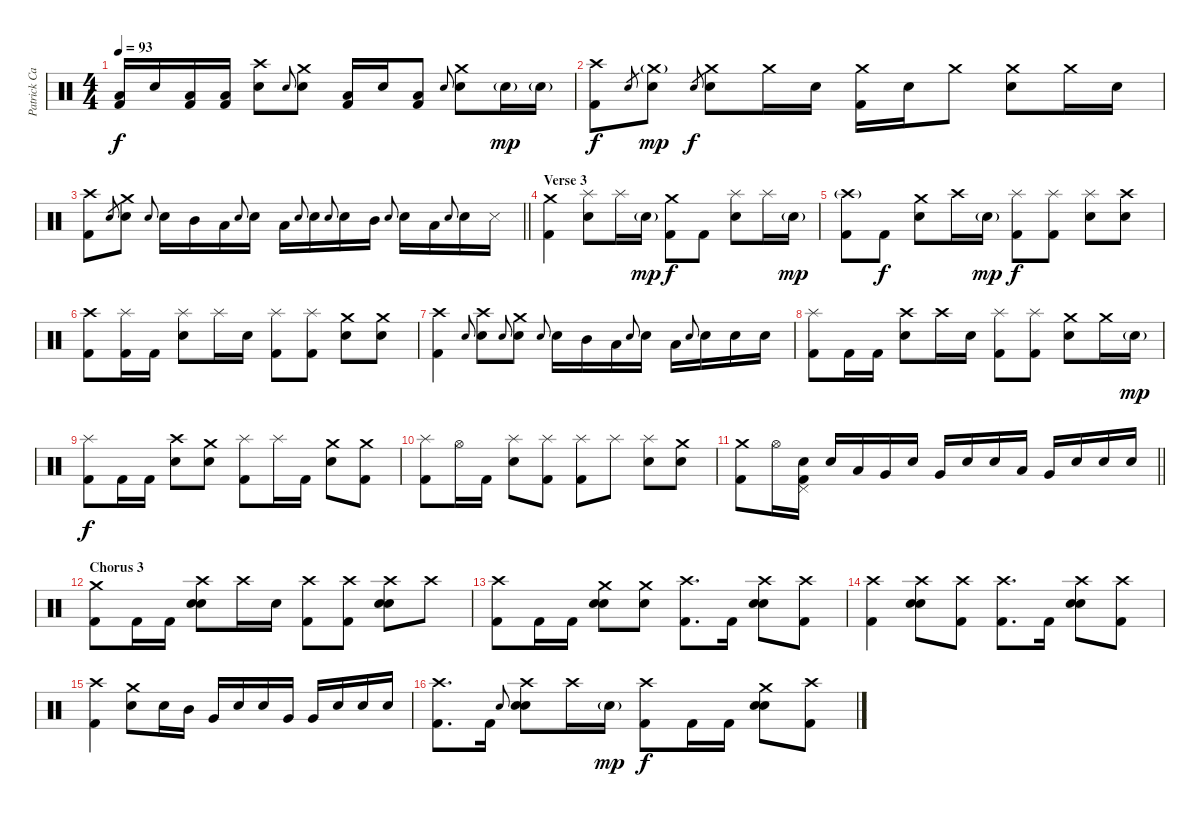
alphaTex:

\track ("Patrick Carney [Drums]" "Patrick Ca") {instrument percussion}
\staff {score}
\articulation defaults
\ts (4 4)
\tempo 93
\clef neutral
\ks c
("Low Floor Tom (hit)" "Kick (hit) 2").16{dy f} "Electric Snare (hit)".16 ("Low Floor Tom (hit)" "Kick (hit) 2").16 ("Low Floor Tom (hit)" "Kick (hit) 2").16 ("Crash high (hit)" "Electric Snare (hit)").8 "Electric Snare (hit)".8{gr onbeat} ("Crash medium (hit)" "Electric Snare (hit)").8 ("Low Floor Tom (hit)" "Kick (hit) 2").16 "Electric Snare (hit)".16 ("Low Floor Tom (hit)" "Kick (hit) 2").8 "Electric Snare (hit)".8{gr onbeat} ("Crash medium (hit)" "Electric Snare (hit)").8 "Electric Snare (hit)"{g}.16{dy mp} "Electric Snare (hit)"{g}.16 |
("Crash high (hit)" "Kick (hit) 2").8{dy f} "Electric Snare (hit)".8{gr} ("Crash medium (hit)"{g} "Electric Snare (hit)").8{dy mp} "Electric Snare (hit)".8{gr dy f} ("Crash medium (hit)" "Electric Snare (hit)").8 "Crash medium (hit)".16 "Electric Snare (hit)".16 ("Crash medium (hit)" "Kick (hit) 2").16 "Electric Snare (hit)".16 "Crash medium (hit)".8 ("Crash medium (hit)" "Electric Snare (hit)").8 "Crash medium (hit)".16 "Electric Snare (hit)".16 |
\barLineRight lightlight
("Crash high (hit)" "Kick (hit) 2").8 "Electric Snare (hit)".8{gr} ("Crash medium (hit)" "Electric Snare (hit)").8 "Electric Snare (hit)".8{gr onbeat} "Electric Snare (hit)".16 "Mid Tom (hit)".16 "Low Floor Tom (hit)".16 "Electric Snare (hit)".8{gr onbeat} "Electric Snare (hit)".16 "Low Floor Tom (hit)".16 "Electric Snare (hit)".8{gr onbeat} "Electric Snare (hit)".16 "Electric Snare (hit)".8{gr onbeat} "Electric Snare (hit)".16 "Mid Tom (hit)".16 "Electric Snare (hit)".8{gr onbeat} "Electric Snare (hit)".16 "Low Floor Tom (hit)".16 "Electric Snare (hit)".8{gr onbeat} "Electric Snare (hit)".16 "Snare (side stick) 3".16 |
\section ("" "Verse 3")
("Crash medium (hit)" "Kick (hit) 2").4 ("Splash (hit)" "Electric Snare (hit)").8 "Splash (hit)".16 "Electric Snare (hit)"{g}.16{dy mp} ("Crash medium (hit)" "Kick (hit) 2").8{dy f} "Kick (hit) 2".8 ("Splash (hit)" "Electric Snare (hit)").8 "Splash (hit)".16 "Electric Snare (hit)"{g}.16{dy mp} |
("Crash high (hit)"{g} "Kick (hit) 2").8 "Kick (hit) 2".8{dy f} ("Crash medium (hit)" "Electric Snare (hit)").8 "Crash high (hit)".16 "Electric Snare (hit)"{g}.16{dy mp} ("Splash (hit)" "Kick (hit) 2").8{dy f} ("Splash (hit)" "Kick (hit) 2").8 ("Splash (hit)" "Electric Snare (hit)").8 ("Crash high (hit)" "Electric Snare (hit)").8 |
("Crash high (hit)" "Kick (hit) 2").8 ("Splash (hit)" "Kick (hit) 2").16 "Kick (hit) 2".16 ("Splash (hit)" "Electric Snare (hit)").8 "Splash (hit)".16 "Electric Snare (hit)".16 ("Splash (hit)" "Kick (hit) 2").8 ("Splash (hit)" "Kick (hit) 2").8 ("Crash medium (hit)" "Electric Snare (hit)").8 ("Crash medium (hit)" "Electric Snare (hit)").8 |
("Crash high (hit)" "Kick (hit) 2").4 "Electric Snare (hit)".8{gr onbeat} ("Crash high (hit)" "Electric Snare (hit)").8 "Electric Snare (hit)".8{gr onbeat} ("Crash medium (hit)" "Electric Snare (hit)").8 "Electric Snare (hit)".8{gr onbeat} "Electric Snare (hit)".16 "Mid Tom (hit)".16 "Low Floor Tom (hit)".16 "Electric Snare (hit)".8{gr onbeat} "Electric Snare (hit)".16 "Low Floor Tom (hit)".16 "Electric Snare (hit)".8{gr onbeat} "Electric Snare (hit)".16 "Electric Snare (hit)".16 "Electric Snare (hit)".16 |
("Splash (hit)" "Kick (hit) 2").8 "Kick (hit) 2".16 "Kick (hit) 2".16 ("Crash high (hit)" "Electric Snare (hit)").8 "Crash high (hit)".16 "Electric Snare (hit)".16 ("Splash (hit)" "Kick (hit) 2").8 ("Splash (hit)" "Kick (hit) 2").8 ("Crash medium (hit)" "Electric Snare (hit)").8 "Crash medium (hit)".16 "Electric Snare (hit)"{g}.16{dy mp} |
("Splash (hit)" "Kick (hit) 2").8{dy f} "Kick (hit) 2".16 "Kick (hit) 2".16 ("Crash high (hit)" "Electric Snare (hit)").8 ("Crash medium (hit)" "Electric Snare (hit)").8 ("Splash (hit)" "Kick (hit) 2").8 "Splash (hit)".16 "Kick (hit) 2".16 ("Crash medium (hit)" "Electric Snare (hit)").8 ("Crash medium (hit)" "Kick (hit) 2").8 |
("Splash (hit)" "Kick (hit) 2").8 "Hi-Hat (open)".16 "Kick (hit) 2".16 ("Splash (hit)" "Electric Snare (hit)").8 ("Splash (hit)" "Kick (hit) 2").8 ("Splash (hit)" "Kick (hit) 2").8 "Splash (hit)".8 ("Splash (hit)" "Electric Snare (hit)").8 ("Crash medium (hit)" "Electric Snare (hit)").8 |
\barLineRight lightlight
("Crash medium (hit)" "Kick (hit) 2").8 "Hi-Hat (open)".16 ("Pedal Hi-Hat (hit)" "Electric Snare (hit)" "Kick (hit) 2").16 "Electric Snare (hit)".16 "Low Tom (hit)".16 "Very Low Tom (hit)".16 "Electric Snare (hit)".16 "Very Low Tom (hit)".16 "Electric Snare (hit)".16 "Electric Snare (hit)".16 "Low Tom (hit)".16 "Very Low Tom (hit)".16 "Electric Snare (hit)".16 "Electric Snare (hit)".16 "Electric Snare (hit)".16 |
\section ("" "Chorus 3")
("Crash medium (hit)" "Kick (hit) 2").8 "Kick (hit) 2".16 "Kick (hit) 2".16 ("Crash high (hit)" "Hand Clap (hit)" "Electric Snare (hit)").8 "Crash high (hit)".16 "Electric Snare (hit)".16 ("Crash high (hit)" "Kick (hit) 2").8 ("Crash high (hit)" "Kick (hit) 2").8 ("Crash high (hit)" "Hand Clap (hit)" "Electric Snare (hit)").8 "Crash high (hit)".8 |
("Crash high (hit)" "Kick (hit) 2").8 "Kick (hit) 2".16 "Kick (hit) 2".16 ("Crash medium (hit)" "Hand Clap (hit)" "Electric Snare (hit)").8 ("Crash medium (hit)" "Electric Snare (hit)").8 ("Crash high (hit)" "Kick (hit) 2").8{d} "Kick (hit) 2".16 ("Crash high (hit)" "Hand Clap (hit)" "Electric Snare (hit)").8 ("Crash high (hit)" "Kick (hit) 2").8 |
("Crash high (hit)" "Kick (hit) 2").4 ("Crash high (hit)" "Hand Clap (hit)" "Electric Snare (hit)").8 ("Crash high (hit)" "Kick (hit) 2").8 ("Crash high (hit)" "Kick (hit) 2").8{d} "Kick (hit) 2".16 ("Crash high (hit)" "Hand Clap (hit)" "Electric Snare (hit)").8 ("Crash high (hit)" "Kick (hit) 2").8 |
("Crash high (hit)" "Kick (hit) 2").4 ("Crash medium (hit)" "Electric Snare (hit)").8 "Electric Snare (hit)".16 "Mid Tom (hit)".16 "Very Low Tom (hit)".16 "Electric Snare (hit)".16 "Electric Snare (hit)".16 "Very Low Tom (hit)".16 "Very Low Tom (hit)".16 "Electric Snare (hit)".16 "Electric Snare (hit)".16 "Electric Snare (hit)".16 |
("Crash high (hit)" "Kick (hit) 2").8{d} "Kick (hit) 2".16 "Electric Snare (hit)".8{gr onbeat} ("Crash high (hit)" "Hand Clap (hit)" "Electric Snare (hit)").8 "Crash high (hit)".16 "Electric Snare (hit)"{g}.16{dy mp} ("Crash high (hit)" "Kick (hit) 2").8{dy f} "Kick (hit) 2".16 "Kick (hit) 2".16 ("Crash medium (hit)" "Hand Clap (hit)" "Electric Snare (hit)").8 ("Crash high (hit)" "Kick (hit) 2").8
